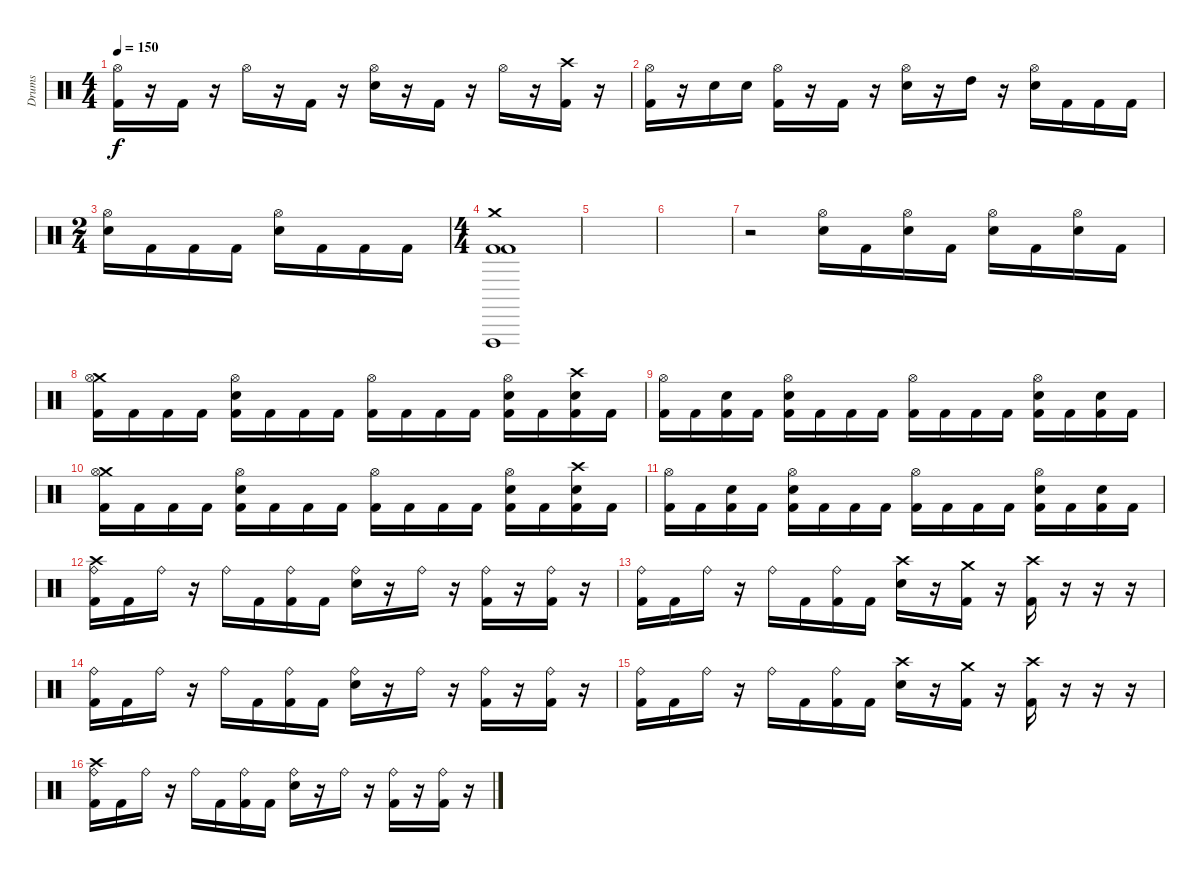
\track ("Drums" "Drums") {instrument percussion}
\staff {score}
\articulation defaults
\ts (4 4)
\tempo 150
\clef neutral
\ks c
("Hi-Hat (open)" "Kick (hit) 2").16{dy f} r.16 "Kick (hit) 2".16 r.16 "Hi-Hat (open)".16 r.16 "Kick (hit) 2".16 r.16 ("Hi-Hat (open)" "Electric Snare (hit)").16 r.16 "Kick (hit) 2".16 r.16 "Hi-Hat (open)".16 r.16 ("Crash high (hit)" "Kick (hit) 2").16 r.16 |
("Hi-Hat (open)" "Kick (hit) 2").16 r.16 "Electric Snare (hit)".16 "Electric Snare (hit)".16 ("Hi-Hat (open)" "Kick (hit) 2").16 r.16 "Kick (hit) 2".16 r.16 ("Hi-Hat (open)" "Electric Snare (hit)").16 r.16 "High Tom (hit)".16 r.16 ("Hi-Hat (open)" "Electric Snare (hit)").16 "Kick (hit) 2".16 "Kick (hit) 2".16 "Kick (hit) 2".16 |
\ts (2 4)
("Hi-Hat (open)" "Electric Snare (hit)").16 "Kick (hit) 2".16 "Kick (hit) 2".16 "Kick (hit) 2".16 ("Hi-Hat (open)" "Electric Snare (hit)").16 "Kick (hit) 2".16 "Kick (hit) 2".16 "Kick (hit) 2".16 |
\ts (4 4)
("Crash medium (hit)" "Vibraslap (hit)" "Kick (hit) 2" "Kick (hit) 2").1 |
|
|
r.2 ("Hi-Hat (open)" "Electric Snare (hit)").16 "Kick (hit) 2".16 ("Hi-Hat (open)" "Electric Snare (hit)").16 "Kick (hit) 2".16 ("Hi-Hat (open)" "Electric Snare (hit)").16 "Kick (hit) 2".16 ("Hi-Hat (open)" "Electric Snare (hit)").16 "Kick (hit) 2".16 |
("Crash medium (hit)" "Hi-Hat (open)" "Kick (hit) 2").16 "Kick (hit) 2".16 "Kick (hit) 2".16 "Kick (hit) 2".16 ("Hi-Hat (open)" "Electric Snare (hit)" "Kick (hit) 2").16 "Kick (hit) 2".16 "Kick (hit) 2".16 "Kick (hit) 2".16 ("Hi-Hat (open)" "Kick (hit) 2").16 "Kick (hit) 2".16 "Kick (hit) 2".16 "Kick (hit) 2".16 ("Hi-Hat (open)" "Electric Snare (hit)" "Kick (hit) 2").16 "Kick (hit) 2".16 ("Crash high (hit)" "Electric Snare (hit)" "Kick (hit) 2").16 "Kick (hit) 2".16 |
("Hi-Hat (open)" "Kick (hit) 2").16 "Kick (hit) 2".16 ("Electric Snare (hit)" "Kick (hit) 2").16 "Kick (hit) 2".16 ("Hi-Hat (open)" "Electric Snare (hit)" "Kick (hit) 2").16 "Kick (hit) 2".16 "Kick (hit) 2".16 "Kick (hit) 2".16 ("Hi-Hat (open)" "Kick (hit) 2").16 "Kick (hit) 2".16 "Kick (hit) 2".16 "Kick (hit) 2".16 ("Hi-Hat (open)" "Electric Snare (hit)" "Kick (hit) 2").16 "Kick (hit) 2".16 ("Electric Snare (hit)" "Kick (hit) 2").16 "Kick (hit) 2".16 |
("Crash medium (hit)" "Hi-Hat (open)" "Kick (hit) 2").16 "Kick (hit) 2".16 "Kick (hit) 2".16 "Kick (hit) 2".16 ("Hi-Hat (open)" "Electric Snare (hit)" "Kick (hit) 2").16 "Kick (hit) 2".16 "Kick (hit) 2".16 "Kick (hit) 2".16 ("Hi-Hat (open)" "Kick (hit) 2").16 "Kick (hit) 2".16 "Kick (hit) 2".16 "Kick (hit) 2".16 ("Hi-Hat (open)" "Electric Snare (hit)" "Kick (hit) 2").16 "Kick (hit) 2".16 ("Crash high (hit)" "Electric Snare (hit)" "Kick (hit) 2").16 "Kick (hit) 2".16 |
("Hi-Hat (open)" "Kick (hit) 2").16 "Kick (hit) 2".16 ("Electric Snare (hit)" "Kick (hit) 2").16 "Kick (hit) 2".16 ("Hi-Hat (open)" "Electric Snare (hit)" "Kick (hit) 2").16 "Kick (hit) 2".16 "Kick (hit) 2".16 "Kick (hit) 2".16 ("Hi-Hat (open)" "Kick (hit) 2").16 "Kick (hit) 2".16 "Kick (hit) 2".16 "Kick (hit) 2".16 ("Hi-Hat (open)" "Electric Snare (hit)" "Kick (hit) 2").16 "Kick (hit) 2".16 ("Electric Snare (hit)" "Kick (hit) 2").16 "Kick (hit) 2".16 |
("Crash high (hit)" "Ride (bell)" "Kick (hit) 2").16 "Kick (hit) 2".16 "Ride (bell)".16 r.16 "Ride (bell)".16 "Kick (hit) 2".16 ("Ride (bell)" "Kick (hit) 2").16 "Kick (hit) 2".16 ("Ride (bell)" "Electric Snare (hit)").16 r.16 "Ride (bell)".16 r.16 ("Ride (bell)" "Kick (hit) 2").16 r.16 ("Ride (bell)" "Kick (hit) 2").16 r.16 |
("Ride (bell)" "Kick (hit) 2").16 "Kick (hit) 2".16 "Ride (bell)".16 r.16 "Ride (bell)".16 "Kick (hit) 2".16 ("Ride (bell)" "Kick (hit) 2").16 "Kick (hit) 2".16 ("Crash high (hit)" "Electric Snare (hit)").16 r.16 ("Crash medium (hit)" "Kick (hit) 2").16 r.16 ("Crash high (hit)" "Kick (hit) 2").16 r.16 r.16 r.16 |
("Ride (bell)" "Kick (hit) 2").16 "Kick (hit) 2".16 "Ride (bell)".16 r.16 "Ride (bell)".16 "Kick (hit) 2".16 ("Ride (bell)" "Kick (hit) 2").16 "Kick (hit) 2".16 ("Ride (bell)" "Electric Snare (hit)").16 r.16 "Ride (bell)".16 r.16 ("Ride (bell)" "Kick (hit) 2").16 r.16 ("Ride (bell)" "Kick (hit) 2").16 r.16 |
("Ride (bell)" "Kick (hit) 2").16 "Kick (hit) 2".16 "Ride (bell)".16 r.16 "Ride (bell)".16 "Kick (hit) 2".16 ("Ride (bell)" "Kick (hit) 2").16 "Kick (hit) 2".16 ("Crash high (hit)" "Electric Snare (hit)").16 r.16 ("Crash medium (hit)" "Kick (hit) 2").16 r.16 ("Crash high (hit)" "Kick (hit) 2").16 r.16 r.16 r.16 |
("Crash high (hit)" "Ride (bell)" "Kick (hit) 2").16 "Kick (hit) 2".16 "Ride (bell)".16 r.16 "Ride (bell)".16 "Kick (hit) 2".16 ("Ride (bell)" "Kick (hit) 2").16 "Kick (hit) 2".16 ("Ride (bell)" "Electric Snare (hit)").16 r.16 "Ride (bell)".16 r.16 ("Ride (bell)" "Kick (hit) 2").16 r.16 ("Ride (bell)" "Kick (hit) 2").16 r.16
